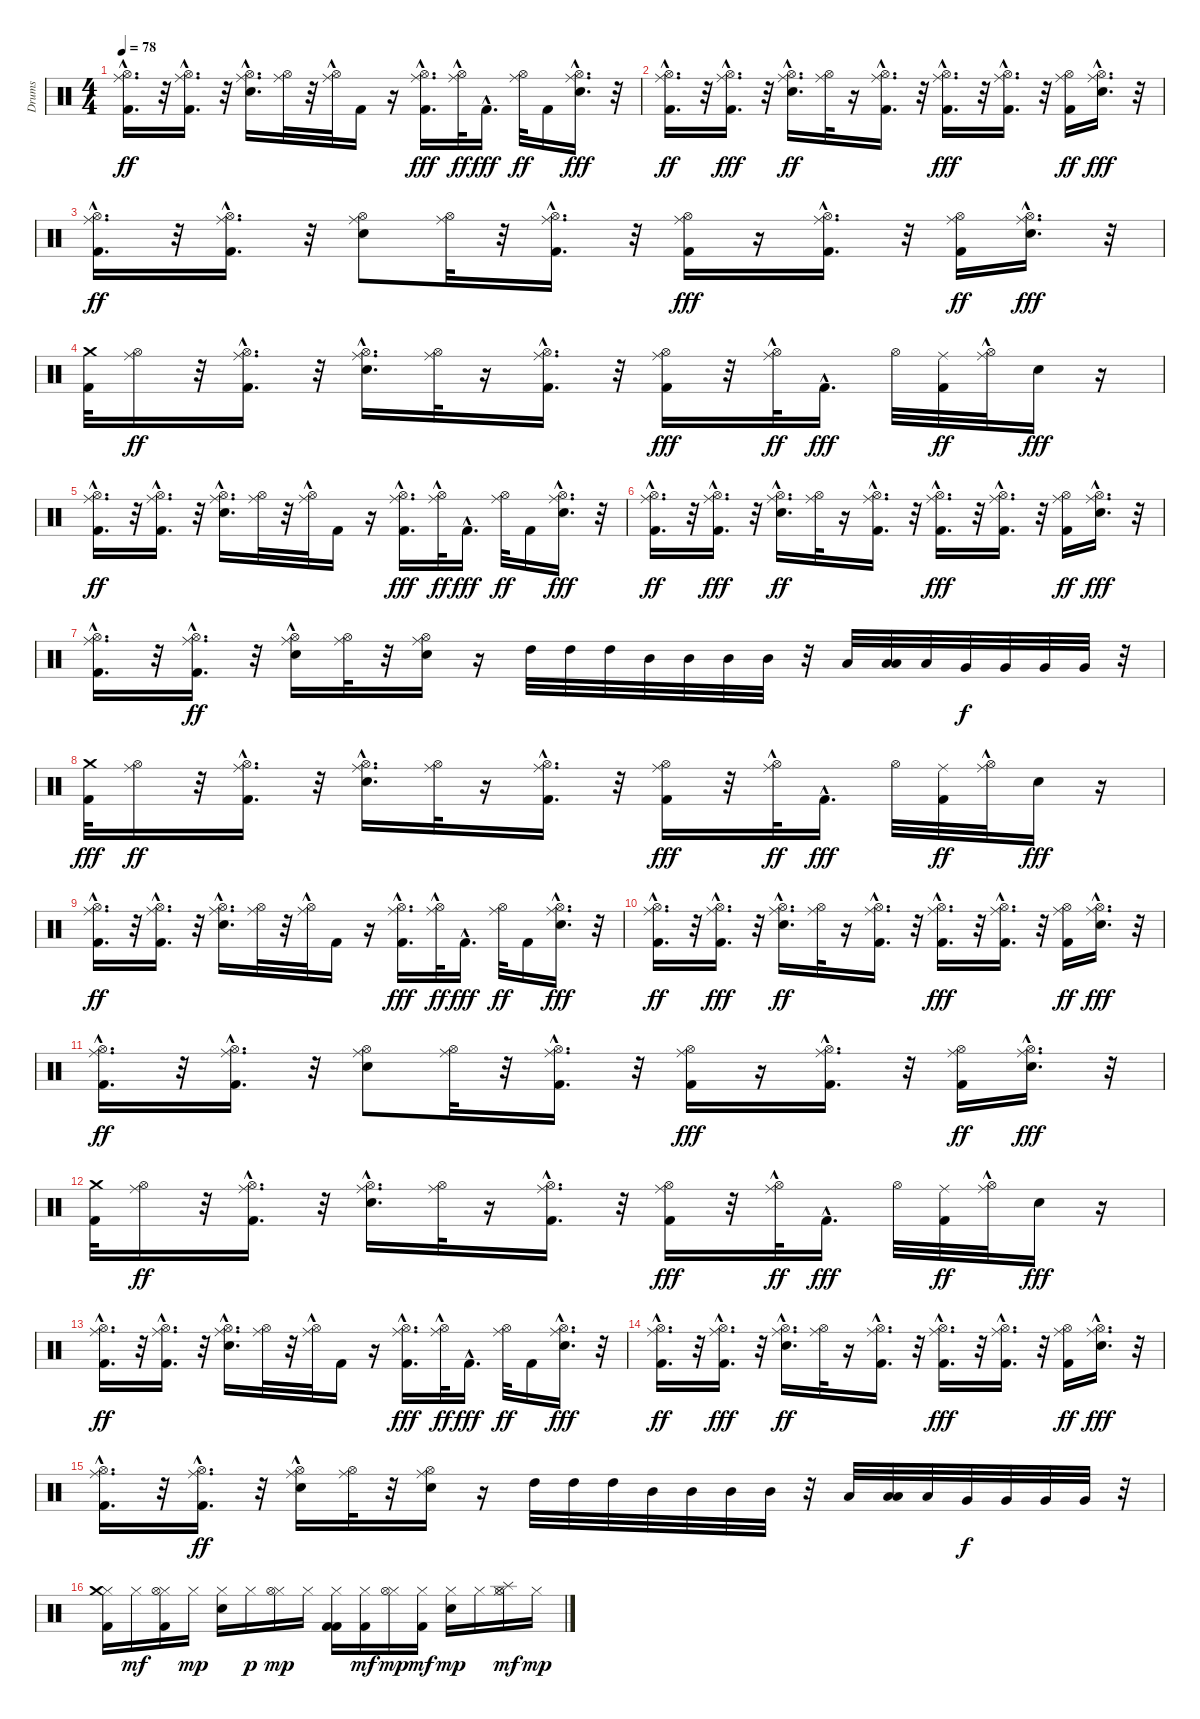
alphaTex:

\track ("Drums" "Drums") {instrument percussion}
\staff {score}
\articulation defaults
\ts (4 4)
\tempo 78
\clef neutral
\ks c
("Hi-Hat (open)"{hac} "Kick (hit) 2" "Ride (middle)"{hac}).16{d dy ff} r.32 ("Hi-Hat (open)" "Ride (middle)" "Kick (hit) 2"{hac}).16{d} r.32 ("Hi-Hat (open)"{hac} "Ride (middle)"{hac} "Snare (hit) 2").16{d} ("Ride (middle)" "Hi-Hat (open)").32 r.32 ("Hi-Hat (open)"{hac} "Ride (middle)"{hac}).32 "Kick (hit) 2".16 r.16 ("Hi-Hat (open)"{hac} "Ride (middle)"{hac} "Kick (hit) 2").16{d dy fff} ("Hi-Hat (open)"{hac} "Ride (middle)"{hac}).32{dy ff} "Kick (hit) 2"{hac}.16{d dy fff} ("Hi-Hat (open)" "Ride (middle)").32{dy ff} "Kick (hit) 2".16 ("Hi-Hat (open)"{hac} "Ride (middle)"{hac} "Snare (hit) 2").16{d dy fff} r.32 |
("Kick (hit) 2" "Hi-Hat (open)"{hac} "Ride (middle)"{hac}).16{d dy ff} r.32 ("Kick (hit) 2"{hac} "Ride (middle)" "Hi-Hat (open)"{hac}).16{d dy fff} r.32 ("Hi-Hat (open)"{hac} "Ride (middle)"{hac} "Snare (hit) 2").16{d dy ff} ("Ride (middle)" "Hi-Hat (open)").32 r.16 ("Hi-Hat (open)"{hac} "Ride (middle)"{hac} "Kick (hit) 2").16{d} r.32 ("Hi-Hat (open)"{hac} "Ride (middle)"{hac} "Kick (hit) 2").16{d dy fff} r.32 ("Hi-Hat (open)"{hac} "Ride (middle)"{hac} "Kick (hit) 2"{hac}).16{d} r.32 ("Hi-Hat (open)" "Ride (middle)" "Kick (hit) 2").16{dy ff} ("Hi-Hat (open)"{hac} "Ride (middle)"{hac} "Snare (hit) 2").16{d dy fff} r.32 |
("Kick (hit) 2" "Hi-Hat (open)"{hac} "Ride (middle)"{hac}).16{d dy ff} r.32 ("Kick (hit) 2"{hac} "Hi-Hat (open)"{hac} "Ride (middle)").16{d} r.32 ("Hi-Hat (open)" "Snare (hit) 2" "Ride (middle)").8 ("Hi-Hat (open)" "Ride (middle)").32 r.32 ("Hi-Hat (open)"{hac} "Ride (middle)"{hac} "Kick (hit) 2").16{d} r.32 ("Hi-Hat (open)" "Ride (middle)" "Kick (hit) 2").16{dy fff} r.16 ("Hi-Hat (open)"{hac} "Ride (middle)"{hac} "Kick (hit) 2"{hac}).16{d} r.32 ("Ride (middle)" "Hi-Hat (open)" "Kick (hit) 2").16{dy ff} ("Hi-Hat (open)"{hac} "Ride (middle)"{hac} "Snare (hit) 2").16{d dy fff} r.32 |
("Kick (hit) 2" "Crash medium (hit)").32 ("Ride (middle)" "Hi-Hat (open)").16{dy ff} r.32 ("Kick (hit) 2"{hac} "Ride (middle)" "Hi-Hat (open)").16{d} r.32 ("Hi-Hat (open)"{hac} "Ride (middle)"{hac} "Snare (hit) 2").16{d} ("Ride (middle)" "Hi-Hat (open)").32 r.16 ("Hi-Hat (open)"{hac} "Ride (middle)"{hac} "Kick (hit) 2").16{d} r.32 ("Hi-Hat (open)" "Ride (middle)" "Kick (hit) 2").16{dy fff} r.32 ("Hi-Hat (open)"{hac} "Ride (middle)"{hac}).32{dy ff} "Kick (hit) 2"{hac}.16{d dy fff} "Hi-Hat (open)".32 ("Ride (middle)" "Kick (hit) 2").32{dy ff} ("Ride (middle)"{hac} "Hi-Hat (open)"{hac}).32 "Snare (hit) 2".16{dy fff} r.16 |
("Hi-Hat (open)"{hac} "Kick (hit) 2" "Ride (middle)"{hac}).16{d dy ff} r.32 ("Hi-Hat (open)" "Ride (middle)" "Kick (hit) 2"{hac}).16{d} r.32 ("Hi-Hat (open)"{hac} "Ride (middle)"{hac} "Snare (hit) 2").16{d} ("Ride (middle)" "Hi-Hat (open)").32 r.32 ("Hi-Hat (open)"{hac} "Ride (middle)"{hac}).32 "Kick (hit) 2".16 r.16 ("Hi-Hat (open)"{hac} "Ride (middle)"{hac} "Kick (hit) 2").16{d dy fff} ("Hi-Hat (open)"{hac} "Ride (middle)"{hac}).32{dy ff} "Kick (hit) 2"{hac}.16{d dy fff} ("Hi-Hat (open)" "Ride (middle)").32{dy ff} "Kick (hit) 2".16 ("Hi-Hat (open)"{hac} "Ride (middle)"{hac} "Snare (hit) 2").16{d dy fff} r.32 |
("Kick (hit) 2" "Hi-Hat (open)"{hac} "Ride (middle)"{hac}).16{d dy ff} r.32 ("Kick (hit) 2"{hac} "Ride (middle)" "Hi-Hat (open)"{hac}).16{d dy fff} r.32 ("Hi-Hat (open)"{hac} "Ride (middle)"{hac} "Snare (hit) 2").16{d dy ff} ("Ride (middle)" "Hi-Hat (open)").32 r.16 ("Hi-Hat (open)"{hac} "Ride (middle)"{hac} "Kick (hit) 2").16{d} r.32 ("Hi-Hat (open)"{hac} "Ride (middle)"{hac} "Kick (hit) 2").16{d dy fff} r.32 ("Hi-Hat (open)"{hac} "Ride (middle)"{hac} "Kick (hit) 2"{hac}).16{d} r.32 ("Hi-Hat (open)" "Ride (middle)" "Kick (hit) 2").16{dy ff} ("Hi-Hat (open)"{hac} "Ride (middle)"{hac} "Snare (hit) 2").16{d dy fff} r.32 |
("Ride (middle)" "Hi-Hat (open)" "Kick (hit) 2"{hac}).16{d} r.32 ("Kick (hit) 2"{hac} "Ride (middle)" "Hi-Hat (open)").16{d dy ff} r.32 ("Snare (hit) 2"{hac} "Ride (middle)" "Hi-Hat (open)").16 ("Ride (middle)" "Hi-Hat (open)").32 r.32 ("Snare (hit) 2" "Ride (middle)" "Hi-Hat (open)").16 r.16 "High Tom (hit)".32 "High Tom (hit)".32 "High Tom (hit)".32 "Mid Tom (hit)".32 "Mid Tom (hit)".32 "Mid Tom (hit)".32 "Mid Tom (hit)".32 r.32 "Low Tom (hit)".32 ("Low Tom (hit)" "Low Tom (hit)").32 "Low Tom (hit)".32 "Very Low Tom (hit)".32{dy f} "Very Low Tom (hit)".32 "Very Low Tom (hit)".32 "Very Low Tom (hit)".32 r.32 |
("Kick (hit) 2" "Crash medium (hit)").32{dy fff} ("Ride (middle)" "Hi-Hat (open)").16{dy ff} r.32 ("Kick (hit) 2"{hac} "Ride (middle)" "Hi-Hat (open)").16{d} r.32 ("Hi-Hat (open)"{hac} "Ride (middle)"{hac} "Snare (hit) 2").16{d} ("Ride (middle)" "Hi-Hat (open)").32 r.16 ("Hi-Hat (open)"{hac} "Ride (middle)"{hac} "Kick (hit) 2").16{d} r.32 ("Hi-Hat (open)" "Ride (middle)" "Kick (hit) 2").16{dy fff} r.32 ("Hi-Hat (open)"{hac} "Ride (middle)"{hac}).32{dy ff} "Kick (hit) 2"{hac}.16{d dy fff} "Hi-Hat (open)".32 ("Ride (middle)" "Kick (hit) 2").32{dy ff} ("Ride (middle)"{hac} "Hi-Hat (open)"{hac}).32 "Snare (hit) 2".16{dy fff} r.16 |
("Hi-Hat (open)"{hac} "Kick (hit) 2" "Ride (middle)"{hac}).16{d dy ff} r.32 ("Hi-Hat (open)" "Ride (middle)" "Kick (hit) 2"{hac}).16{d} r.32 ("Hi-Hat (open)"{hac} "Ride (middle)"{hac} "Snare (hit) 2").16{d} ("Ride (middle)" "Hi-Hat (open)").32 r.32 ("Hi-Hat (open)"{hac} "Ride (middle)"{hac}).32 "Kick (hit) 2".16 r.16 ("Hi-Hat (open)"{hac} "Ride (middle)"{hac} "Kick (hit) 2").16{d dy fff} ("Hi-Hat (open)"{hac} "Ride (middle)"{hac}).32{dy ff} "Kick (hit) 2"{hac}.16{d dy fff} ("Hi-Hat (open)" "Ride (middle)").32{dy ff} "Kick (hit) 2".16 ("Hi-Hat (open)"{hac} "Ride (middle)"{hac} "Snare (hit) 2").16{d dy fff} r.32 |
("Kick (hit) 2" "Hi-Hat (open)"{hac} "Ride (middle)"{hac}).16{d dy ff} r.32 ("Kick (hit) 2"{hac} "Ride (middle)" "Hi-Hat (open)"{hac}).16{d dy fff} r.32 ("Hi-Hat (open)"{hac} "Ride (middle)"{hac} "Snare (hit) 2").16{d dy ff} ("Ride (middle)" "Hi-Hat (open)").32 r.16 ("Hi-Hat (open)"{hac} "Ride (middle)"{hac} "Kick (hit) 2").16{d} r.32 ("Hi-Hat (open)"{hac} "Ride (middle)"{hac} "Kick (hit) 2").16{d dy fff} r.32 ("Hi-Hat (open)"{hac} "Ride (middle)"{hac} "Kick (hit) 2"{hac}).16{d} r.32 ("Hi-Hat (open)" "Ride (middle)" "Kick (hit) 2").16{dy ff} ("Hi-Hat (open)"{hac} "Ride (middle)"{hac} "Snare (hit) 2").16{d dy fff} r.32 |
("Kick (hit) 2" "Hi-Hat (open)"{hac} "Ride (middle)"{hac}).16{d dy ff} r.32 ("Kick (hit) 2"{hac} "Hi-Hat (open)"{hac} "Ride (middle)").16{d} r.32 ("Hi-Hat (open)" "Snare (hit) 2" "Ride (middle)").8 ("Hi-Hat (open)" "Ride (middle)").32 r.32 ("Hi-Hat (open)"{hac} "Ride (middle)"{hac} "Kick (hit) 2").16{d} r.32 ("Hi-Hat (open)" "Ride (middle)" "Kick (hit) 2").16{dy fff} r.16 ("Hi-Hat (open)"{hac} "Ride (middle)"{hac} "Kick (hit) 2"{hac}).16{d} r.32 ("Ride (middle)" "Hi-Hat (open)" "Kick (hit) 2").16{dy ff} ("Hi-Hat (open)"{hac} "Ride (middle)"{hac} "Snare (hit) 2").16{d dy fff} r.32 |
("Kick (hit) 2" "Crash medium (hit)").32 ("Ride (middle)" "Hi-Hat (open)").16{dy ff} r.32 ("Kick (hit) 2"{hac} "Ride (middle)" "Hi-Hat (open)").16{d} r.32 ("Hi-Hat (open)"{hac} "Ride (middle)"{hac} "Snare (hit) 2").16{d} ("Ride (middle)" "Hi-Hat (open)").32 r.16 ("Hi-Hat (open)"{hac} "Ride (middle)"{hac} "Kick (hit) 2").16{d} r.32 ("Hi-Hat (open)" "Ride (middle)" "Kick (hit) 2").16{dy fff} r.32 ("Hi-Hat (open)"{hac} "Ride (middle)"{hac}).32{dy ff} "Kick (hit) 2"{hac}.16{d dy fff} "Hi-Hat (open)".32 ("Ride (middle)" "Kick (hit) 2").32{dy ff} ("Ride (middle)"{hac} "Hi-Hat (open)"{hac}).32 "Snare (hit) 2".16{dy fff} r.16 |
("Hi-Hat (open)"{hac} "Kick (hit) 2" "Ride (middle)"{hac}).16{d dy ff} r.32 ("Hi-Hat (open)" "Ride (middle)" "Kick (hit) 2"{hac}).16{d} r.32 ("Hi-Hat (open)"{hac} "Ride (middle)"{hac} "Snare (hit) 2").16{d} ("Ride (middle)" "Hi-Hat (open)").32 r.32 ("Hi-Hat (open)"{hac} "Ride (middle)"{hac}).32 "Kick (hit) 2".16 r.16 ("Hi-Hat (open)"{hac} "Ride (middle)"{hac} "Kick (hit) 2").16{d dy fff} ("Hi-Hat (open)"{hac} "Ride (middle)"{hac}).32{dy ff} "Kick (hit) 2"{hac}.16{d dy fff} ("Hi-Hat (open)" "Ride (middle)").32{dy ff} "Kick (hit) 2".16 ("Hi-Hat (open)"{hac} "Ride (middle)"{hac} "Snare (hit) 2").16{d dy fff} r.32 |
("Kick (hit) 2" "Hi-Hat (open)"{hac} "Ride (middle)"{hac}).16{d dy ff} r.32 ("Kick (hit) 2"{hac} "Ride (middle)" "Hi-Hat (open)"{hac}).16{d dy fff} r.32 ("Hi-Hat (open)"{hac} "Ride (middle)"{hac} "Snare (hit) 2").16{d dy ff} ("Ride (middle)" "Hi-Hat (open)").32 r.16 ("Hi-Hat (open)"{hac} "Ride (middle)"{hac} "Kick (hit) 2").16{d} r.32 ("Hi-Hat (open)"{hac} "Ride (middle)"{hac} "Kick (hit) 2").16{d dy fff} r.32 ("Hi-Hat (open)"{hac} "Ride (middle)"{hac} "Kick (hit) 2"{hac}).16{d} r.32 ("Hi-Hat (open)" "Ride (middle)" "Kick (hit) 2").16{dy ff} ("Hi-Hat (open)"{hac} "Ride (middle)"{hac} "Snare (hit) 2").16{d dy fff} r.32 |
("Ride (middle)" "Hi-Hat (open)" "Kick (hit) 2"{hac}).16{d} r.32 ("Kick (hit) 2"{hac} "Ride (middle)" "Hi-Hat (open)").16{d dy ff} r.32 ("Snare (hit) 2"{hac} "Ride (middle)" "Hi-Hat (open)").16 ("Ride (middle)" "Hi-Hat (open)").32 r.32 ("Snare (hit) 2" "Ride (middle)" "Hi-Hat (open)").16 r.16 "High Tom (hit)".32 "High Tom (hit)".32 "High Tom (hit)".32 "Mid Tom (hit)".32 "Mid Tom (hit)".32 "Mid Tom (hit)".32 "Mid Tom (hit)".32 r.32 "Low Tom (hit)".32 ("Low Tom (hit)" "Low Tom (hit)").32 "Low Tom (hit)".32 "Very Low Tom (hit)".32{dy f} "Very Low Tom (hit)".32 "Very Low Tom (hit)".32 "Very Low Tom (hit)".32 r.32 |
("Kick (hit) 2" "Hi-Hat (closed)" "Crash medium (hit)").16 "Hi-Hat (closed)".16{dy mf} ("Hi-Hat (closed)" "Kick (hit) 2" "Hi-Hat (open)").16 "Hi-Hat (closed)".16{dy mp} ("Snare (hit) 2" "Hi-Hat (closed)").16 "Hi-Hat (closed)".16{dy p} ("Hi-Hat (closed)" "Hi-Hat (open)").16{dy mp} "Hi-Hat (closed)".16 ("Kick (hit) 2" "Hi-Hat (closed)" "Kick (hit) 2").16 ("Hi-Hat (closed)" "Kick (hit) 2").16{dy mf} ("Hi-Hat (closed)" "Hi-Hat (open)").16{dy mp} ("Hi-Hat (closed)" "Kick (hit) 2").16{dy mf} ("Snare (hit) 2" "Hi-Hat (closed)").16{dy mp} "Hi-Hat (closed)".16 ("Hi-Hat (closed)" "Hi-Hat (open)" "Splash (hit)").16{dy mf} "Hi-Hat (closed)".16{dy mp}
